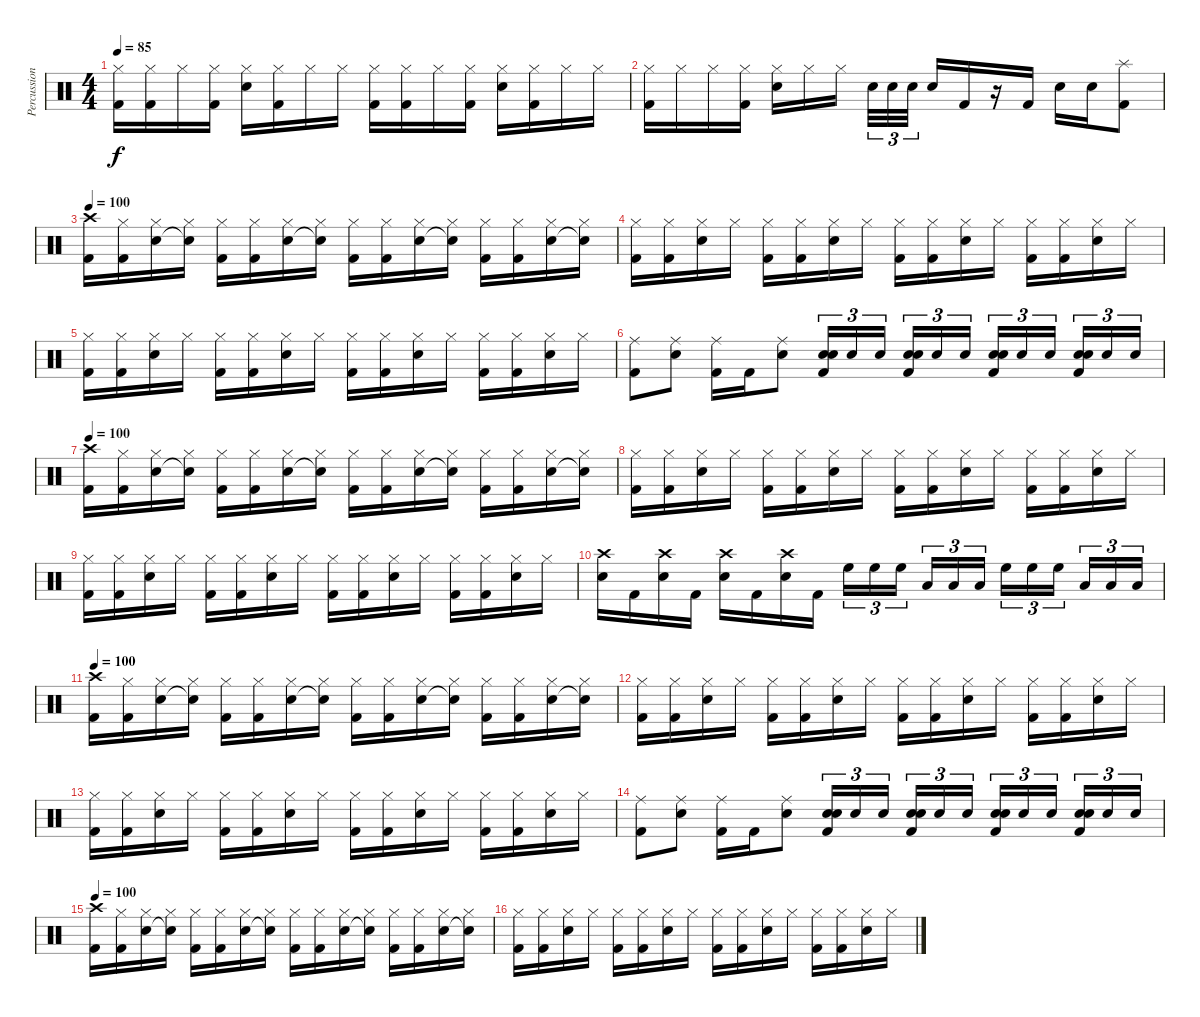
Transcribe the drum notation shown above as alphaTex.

\track ("Percussion" "Percussion") {instrument percussion}
\staff {score}
\articulation defaults
\ts (4 4)
\tempo 85
\clef neutral
\ks c
("Hi-Hat (closed)" "Kick (hit) 2").16{dy f} ("Hi-Hat (closed)" "Kick (hit) 2").16 "Hi-Hat (closed)".16 ("Hi-Hat (closed)" "Kick (hit) 2").16 ("Hi-Hat (closed)" "Electric Snare (hit)").16 ("Hi-Hat (closed)" "Kick (hit) 2").16 "Hi-Hat (closed)".16 "Hi-Hat (closed)".16 ("Hi-Hat (closed)" "Kick (hit) 2").16 ("Hi-Hat (closed)" "Kick (hit) 2").16 "Hi-Hat (closed)".16 ("Hi-Hat (closed)" "Kick (hit) 2").16 ("Hi-Hat (closed)" "Electric Snare (hit)").16 ("Hi-Hat (closed)" "Kick (hit) 2").16 "Hi-Hat (closed)".16 "Hi-Hat (closed)".16 |
("Hi-Hat (closed)" "Kick (hit) 2").16 "Hi-Hat (closed)".16 "Hi-Hat (closed)".16 ("Hi-Hat (closed)" "Kick (hit) 2").16 ("Hi-Hat (closed)" "Electric Snare (hit)").16 "Hi-Hat (closed)".16 "Hi-Hat (closed)".16 "Electric Snare (hit)".32{tu (3 2)} "Electric Snare (hit)".32{tu (3 2)} "Electric Snare (hit)".32{tu (3 2)} "Electric Snare (hit)".16 "Kick (hit) 2".16 r.16 "Kick (hit) 2".16 "Electric Snare (hit)".16 "Electric Snare (hit)".16 ("Splash (hit)" "Kick (hit) 2").8 |
\tempo 100
("Crash high (hit)" "Kick (hit) 2").16 ("Hi-Hat (closed)" "Kick (hit) 2").16 ("Hi-Hat (closed)" "Snare (hit) 2").16 ("Hi-Hat (closed)" "Snare (hit)"{t}).16 ("Hi-Hat (closed)" "Kick (hit) 2").16 ("Hi-Hat (closed)" "Kick (hit) 2").16 ("Hi-Hat (closed)" "Snare (hit) 2").16 ("Hi-Hat (closed)" "Snare (hit)"{t}).16 ("Hi-Hat (closed)" "Kick (hit) 2").16 ("Hi-Hat (closed)" "Kick (hit) 2").16 ("Hi-Hat (closed)" "Snare (hit) 2").16 ("Hi-Hat (closed)" "Snare (hit)"{t}).16 ("Hi-Hat (closed)" "Kick (hit) 2").16 ("Hi-Hat (closed)" "Kick (hit) 2").16 ("Hi-Hat (closed)" "Snare (hit) 2").16 ("Hi-Hat (closed)" "Snare (hit)"{t}).16 |
("Hi-Hat (closed)" "Kick (hit) 2").16 ("Hi-Hat (closed)" "Kick (hit) 2").16 ("Hi-Hat (closed)" "Snare (hit) 2").16 "Hi-Hat (closed)".16 ("Hi-Hat (closed)" "Kick (hit) 2").16 ("Hi-Hat (closed)" "Kick (hit) 2").16 ("Hi-Hat (closed)" "Snare (hit) 2").16 "Hi-Hat (closed)".16 ("Hi-Hat (closed)" "Kick (hit) 2").16 ("Hi-Hat (closed)" "Kick (hit) 2").16 ("Hi-Hat (closed)" "Snare (hit) 2").16 "Hi-Hat (closed)".16 ("Hi-Hat (closed)" "Kick (hit) 2").16 ("Hi-Hat (closed)" "Kick (hit) 2").16 ("Hi-Hat (closed)" "Snare (hit) 2").16 "Hi-Hat (closed)".16 |
("Hi-Hat (closed)" "Kick (hit) 2").16 ("Hi-Hat (closed)" "Kick (hit) 2").16 ("Hi-Hat (closed)" "Snare (hit) 2").16 "Hi-Hat (closed)".16 ("Hi-Hat (closed)" "Kick (hit) 2").16 ("Hi-Hat (closed)" "Kick (hit) 2").16 ("Hi-Hat (closed)" "Snare (hit) 2").16 "Hi-Hat (closed)".16 ("Hi-Hat (closed)" "Kick (hit) 2").16 ("Hi-Hat (closed)" "Kick (hit) 2").16 ("Hi-Hat (closed)" "Snare (hit) 2").16 "Hi-Hat (closed)".16 ("Hi-Hat (closed)" "Kick (hit) 2").16 ("Hi-Hat (closed)" "Kick (hit) 2").16 ("Hi-Hat (closed)" "Snare (hit) 2").16 "Hi-Hat (closed)".16 |
("Ride (middle)" "Kick (hit) 2").8 ("Ride (middle)" "Snare (hit) 2").8 ("Ride (middle)" "Kick (hit) 2").16 "Kick (hit) 2".16 ("Ride (middle)" "Snare (hit) 2").8 ("Snare (hit) 2" "Snare (hit) 2" "Kick (hit) 2").16{tu (3 2)} "Snare (hit) 2".16{tu (3 2)} "Snare (hit) 2".16{tu (3 2)} ("Snare (hit) 2" "Snare (hit) 2" "Kick (hit) 2").16{tu (3 2)} "Snare (hit) 2".16{tu (3 2)} "Snare (hit) 2".16{tu (3 2)} ("Snare (hit) 2" "Snare (hit) 2" "Kick (hit) 2").16{tu (3 2)} "Snare (hit) 2".16{tu (3 2)} "Snare (hit) 2".16{tu (3 2)} ("Snare (hit) 2" "Snare (hit) 2" "Kick (hit) 2").16{tu (3 2)} "Snare (hit) 2".16{tu (3 2)} "Snare (hit) 2".16{tu (3 2)} |
\tempo 100
("Crash high (hit)" "Kick (hit) 2").16 ("Hi-Hat (closed)" "Kick (hit) 2").16 ("Hi-Hat (closed)" "Snare (hit) 2").16 ("Hi-Hat (closed)" "Snare (hit)"{t}).16 ("Hi-Hat (closed)" "Kick (hit) 2").16 ("Hi-Hat (closed)" "Kick (hit) 2").16 ("Hi-Hat (closed)" "Snare (hit) 2").16 ("Hi-Hat (closed)" "Snare (hit)"{t}).16 ("Hi-Hat (closed)" "Kick (hit) 2").16 ("Hi-Hat (closed)" "Kick (hit) 2").16 ("Hi-Hat (closed)" "Snare (hit) 2").16 ("Hi-Hat (closed)" "Snare (hit)"{t}).16 ("Hi-Hat (closed)" "Kick (hit) 2").16 ("Hi-Hat (closed)" "Kick (hit) 2").16 ("Hi-Hat (closed)" "Snare (hit) 2").16 ("Hi-Hat (closed)" "Snare (hit)"{t}).16 |
("Hi-Hat (closed)" "Kick (hit) 2").16 ("Hi-Hat (closed)" "Kick (hit) 2").16 ("Hi-Hat (closed)" "Snare (hit) 2").16 "Hi-Hat (closed)".16 ("Hi-Hat (closed)" "Kick (hit) 2").16 ("Hi-Hat (closed)" "Kick (hit) 2").16 ("Hi-Hat (closed)" "Snare (hit) 2").16 "Hi-Hat (closed)".16 ("Hi-Hat (closed)" "Kick (hit) 2").16 ("Hi-Hat (closed)" "Kick (hit) 2").16 ("Hi-Hat (closed)" "Snare (hit) 2").16 "Hi-Hat (closed)".16 ("Hi-Hat (closed)" "Kick (hit) 2").16 ("Hi-Hat (closed)" "Kick (hit) 2").16 ("Hi-Hat (closed)" "Snare (hit) 2").16 "Hi-Hat (closed)".16 |
("Hi-Hat (closed)" "Kick (hit) 2").16 ("Hi-Hat (closed)" "Kick (hit) 2").16 ("Hi-Hat (closed)" "Snare (hit) 2").16 "Hi-Hat (closed)".16 ("Hi-Hat (closed)" "Kick (hit) 2").16 ("Hi-Hat (closed)" "Kick (hit) 2").16 ("Hi-Hat (closed)" "Snare (hit) 2").16 "Hi-Hat (closed)".16 ("Hi-Hat (closed)" "Kick (hit) 2").16 ("Hi-Hat (closed)" "Kick (hit) 2").16 ("Hi-Hat (closed)" "Snare (hit) 2").16 "Hi-Hat (closed)".16 ("Hi-Hat (closed)" "Kick (hit) 2").16 ("Hi-Hat (closed)" "Kick (hit) 2").16 ("Hi-Hat (closed)" "Snare (hit) 2").16 "Hi-Hat (closed)".16 |
("Crash high (hit)" "Snare (hit) 2").16 "Kick (hit) 2".16 ("Crash high (hit)" "Snare (hit) 2").16 "Kick (hit) 2".16 ("Crash high (hit)" "Snare (hit) 2").16 "Kick (hit) 2".16 ("Crash high (hit)" "Snare (hit) 2").16 "Kick (hit) 2".16 "High Floor Tom (hit)".16{tu (3 2)} "High Floor Tom (hit)".16{tu (3 2)} "High Floor Tom (hit)".16{tu (3 2)} "Low Floor Tom (hit)".16{tu (3 2)} "Low Floor Tom (hit)".16{tu (3 2)} "Low Floor Tom (hit)".16{tu (3 2)} "High Floor Tom (hit)".16{tu (3 2)} "High Floor Tom (hit)".16{tu (3 2)} "High Floor Tom (hit)".16{tu (3 2)} "Low Floor Tom (hit)".16{tu (3 2)} "Low Floor Tom (hit)".16{tu (3 2)} "Low Floor Tom (hit)".16{tu (3 2)} |
\tempo 100
("Crash high (hit)" "Kick (hit) 2").16 ("Hi-Hat (closed)" "Kick (hit) 2").16 ("Hi-Hat (closed)" "Snare (hit) 2").16 ("Hi-Hat (closed)" "Snare (hit)"{t}).16 ("Hi-Hat (closed)" "Kick (hit) 2").16 ("Hi-Hat (closed)" "Kick (hit) 2").16 ("Hi-Hat (closed)" "Snare (hit) 2").16 ("Hi-Hat (closed)" "Snare (hit)"{t}).16 ("Hi-Hat (closed)" "Kick (hit) 2").16 ("Hi-Hat (closed)" "Kick (hit) 2").16 ("Hi-Hat (closed)" "Snare (hit) 2").16 ("Hi-Hat (closed)" "Snare (hit)"{t}).16 ("Hi-Hat (closed)" "Kick (hit) 2").16 ("Hi-Hat (closed)" "Kick (hit) 2").16 ("Hi-Hat (closed)" "Snare (hit) 2").16 ("Hi-Hat (closed)" "Snare (hit)"{t}).16 |
("Hi-Hat (closed)" "Kick (hit) 2").16 ("Hi-Hat (closed)" "Kick (hit) 2").16 ("Hi-Hat (closed)" "Snare (hit) 2").16 "Hi-Hat (closed)".16 ("Hi-Hat (closed)" "Kick (hit) 2").16 ("Hi-Hat (closed)" "Kick (hit) 2").16 ("Hi-Hat (closed)" "Snare (hit) 2").16 "Hi-Hat (closed)".16 ("Hi-Hat (closed)" "Kick (hit) 2").16 ("Hi-Hat (closed)" "Kick (hit) 2").16 ("Hi-Hat (closed)" "Snare (hit) 2").16 "Hi-Hat (closed)".16 ("Hi-Hat (closed)" "Kick (hit) 2").16 ("Hi-Hat (closed)" "Kick (hit) 2").16 ("Hi-Hat (closed)" "Snare (hit) 2").16 "Hi-Hat (closed)".16 |
("Hi-Hat (closed)" "Kick (hit) 2").16 ("Hi-Hat (closed)" "Kick (hit) 2").16 ("Hi-Hat (closed)" "Snare (hit) 2").16 "Hi-Hat (closed)".16 ("Hi-Hat (closed)" "Kick (hit) 2").16 ("Hi-Hat (closed)" "Kick (hit) 2").16 ("Hi-Hat (closed)" "Snare (hit) 2").16 "Hi-Hat (closed)".16 ("Hi-Hat (closed)" "Kick (hit) 2").16 ("Hi-Hat (closed)" "Kick (hit) 2").16 ("Hi-Hat (closed)" "Snare (hit) 2").16 "Hi-Hat (closed)".16 ("Hi-Hat (closed)" "Kick (hit) 2").16 ("Hi-Hat (closed)" "Kick (hit) 2").16 ("Hi-Hat (closed)" "Snare (hit) 2").16 "Hi-Hat (closed)".16 |
("Ride (middle)" "Kick (hit) 2").8 ("Ride (middle)" "Snare (hit) 2").8 ("Ride (middle)" "Kick (hit) 2").16 "Kick (hit) 2".16 ("Ride (middle)" "Snare (hit) 2").8 ("Snare (hit) 2" "Snare (hit) 2" "Kick (hit) 2").16{tu (3 2)} "Snare (hit) 2".16{tu (3 2)} "Snare (hit) 2".16{tu (3 2)} ("Snare (hit) 2" "Snare (hit) 2" "Kick (hit) 2").16{tu (3 2)} "Snare (hit) 2".16{tu (3 2)} "Snare (hit) 2".16{tu (3 2)} ("Snare (hit) 2" "Snare (hit) 2" "Kick (hit) 2").16{tu (3 2)} "Snare (hit) 2".16{tu (3 2)} "Snare (hit) 2".16{tu (3 2)} ("Snare (hit) 2" "Snare (hit) 2" "Kick (hit) 2").16{tu (3 2)} "Snare (hit) 2".16{tu (3 2)} "Snare (hit) 2".16{tu (3 2)} |
\tempo 100
("Crash high (hit)" "Kick (hit) 2").16 ("Hi-Hat (closed)" "Kick (hit) 2").16 ("Hi-Hat (closed)" "Snare (hit) 2").16 ("Hi-Hat (closed)" "Snare (hit)"{t}).16 ("Hi-Hat (closed)" "Kick (hit) 2").16 ("Hi-Hat (closed)" "Kick (hit) 2").16 ("Hi-Hat (closed)" "Snare (hit) 2").16 ("Hi-Hat (closed)" "Snare (hit)"{t}).16 ("Hi-Hat (closed)" "Kick (hit) 2").16 ("Hi-Hat (closed)" "Kick (hit) 2").16 ("Hi-Hat (closed)" "Snare (hit) 2").16 ("Hi-Hat (closed)" "Snare (hit)"{t}).16 ("Hi-Hat (closed)" "Kick (hit) 2").16 ("Hi-Hat (closed)" "Kick (hit) 2").16 ("Hi-Hat (closed)" "Snare (hit) 2").16 ("Hi-Hat (closed)" "Snare (hit)"{t}).16 |
("Hi-Hat (closed)" "Kick (hit) 2").16 ("Hi-Hat (closed)" "Kick (hit) 2").16 ("Hi-Hat (closed)" "Snare (hit) 2").16 "Hi-Hat (closed)".16 ("Hi-Hat (closed)" "Kick (hit) 2").16 ("Hi-Hat (closed)" "Kick (hit) 2").16 ("Hi-Hat (closed)" "Snare (hit) 2").16 "Hi-Hat (closed)".16 ("Hi-Hat (closed)" "Kick (hit) 2").16 ("Hi-Hat (closed)" "Kick (hit) 2").16 ("Hi-Hat (closed)" "Snare (hit) 2").16 "Hi-Hat (closed)".16 ("Hi-Hat (closed)" "Kick (hit) 2").16 ("Hi-Hat (closed)" "Kick (hit) 2").16 ("Hi-Hat (closed)" "Snare (hit) 2").16 "Hi-Hat (closed)".16
